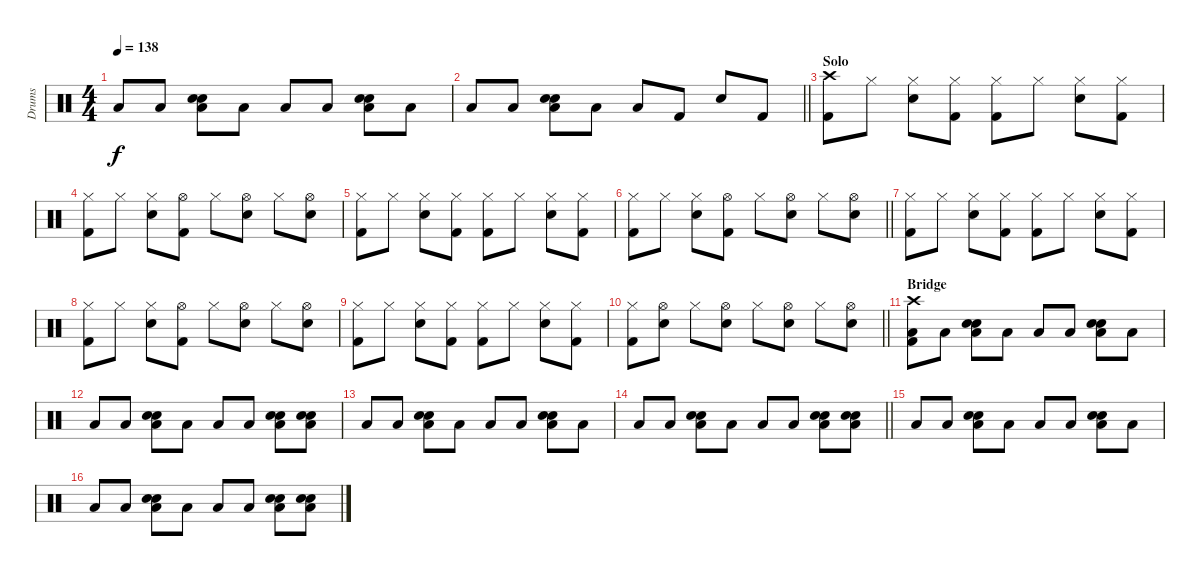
\track ("Drums" "Drums") {instrument percussion}
\staff {score}
\articulation defaults
\ts (4 4)
\tempo 138
\clef neutral
\ks c "Low Floor Tom (hit)".8{dy f} "Low Floor Tom (hit)".8
("Snare (hit) 2" "Hand Clap (hit)" "Low Floor Tom (hit)").8 "Low Floor Tom (hit)".8 "Low Floor Tom (hit)".8 "Low Floor Tom (hit)".8 ("Snare (hit) 2" "Hand Clap (hit)" "Low Floor Tom (hit)").8 "Low Floor Tom (hit)".8 |
\barLineRight lightlight "Low Floor Tom (hit)".8 "Low Floor Tom (hit)".8
("Snare (hit) 2" "Hand Clap (hit)" "Low Floor Tom (hit)").8 "Low Floor Tom (hit)".8 "Low Floor Tom (hit)".8 "Kick (hit) 2".8 "Snare (hit) 2".8 "Kick (hit) 2".8 |
\section ("" "Solo")
("Crash high (hit)" "Kick (hit) 2").8 "Hi-Hat (closed)".8 ("Hi-Hat (closed)" "Snare (hit) 2").8 ("Hi-Hat (closed)" "Kick (hit) 2").8 ("Hi-Hat (closed)" "Kick (hit) 2").8 "Hi-Hat (closed)".8 ("Hi-Hat (closed)" "Snare (hit) 2").8 ("Hi-Hat (closed)" "Kick (hit) 2").8 |
("Hi-Hat (closed)" "Kick (hit) 2").8 "Hi-Hat (closed)".8 ("Hi-Hat (closed)" "Snare (hit) 2").8 ("Hi-Hat (open)" "Kick (hit) 2").8 "Hi-Hat (closed)".8 ("Hi-Hat (open)" "Snare (hit) 2").8 "Hi-Hat (closed)".8 ("Hi-Hat (open)" "Snare (hit) 2").8 |
("Hi-Hat (closed)" "Kick (hit) 2").8 "Hi-Hat (closed)".8 ("Hi-Hat (closed)" "Snare (hit) 2").8 ("Hi-Hat (closed)" "Kick (hit) 2").8 ("Hi-Hat (closed)" "Kick (hit) 2").8 "Hi-Hat (closed)".8 ("Hi-Hat (closed)" "Snare (hit) 2").8 ("Hi-Hat (closed)" "Kick (hit) 2").8 |
\barLineRight lightlight
("Hi-Hat (closed)" "Kick (hit) 2").8 "Hi-Hat (closed)".8 ("Hi-Hat (closed)" "Snare (hit) 2").8 ("Hi-Hat (open)" "Kick (hit) 2").8 "Hi-Hat (closed)".8 ("Hi-Hat (open)" "Snare (hit) 2").8 "Hi-Hat (closed)".8 ("Hi-Hat (open)" "Snare (hit) 2").8 |
("Hi-Hat (closed)" "Kick (hit) 2").8 "Hi-Hat (closed)".8 ("Hi-Hat (closed)" "Snare (hit) 2").8 ("Hi-Hat (closed)" "Kick (hit) 2").8 ("Hi-Hat (closed)" "Kick (hit) 2").8 "Hi-Hat (closed)".8 ("Hi-Hat (closed)" "Snare (hit) 2").8 ("Hi-Hat (closed)" "Kick (hit) 2").8 |
("Hi-Hat (closed)" "Kick (hit) 2").8 "Hi-Hat (closed)".8 ("Hi-Hat (closed)" "Snare (hit) 2").8 ("Hi-Hat (open)" "Kick (hit) 2").8 "Hi-Hat (closed)".8 ("Hi-Hat (open)" "Snare (hit) 2").8 "Hi-Hat (closed)".8 ("Hi-Hat (open)" "Snare (hit) 2").8 |
("Hi-Hat (closed)" "Kick (hit) 2").8 "Hi-Hat (closed)".8 ("Hi-Hat (closed)" "Snare (hit) 2").8 ("Hi-Hat (closed)" "Kick (hit) 2").8 ("Hi-Hat (closed)" "Kick (hit) 2").8 "Hi-Hat (closed)".8 ("Hi-Hat (closed)" "Snare (hit) 2").8 ("Hi-Hat (closed)" "Kick (hit) 2").8 |
\barLineRight lightlight
("Hi-Hat (closed)" "Kick (hit) 2").8 ("Hi-Hat (open)" "Snare (hit) 2").8 "Hi-Hat (closed)".8 ("Hi-Hat (open)" "Snare (hit) 2").8 "Hi-Hat (closed)".8 ("Hi-Hat (open)" "Snare (hit) 2").8 "Hi-Hat (closed)".8 ("Hi-Hat (open)" "Snare (hit) 2").8 |
\section ("" "Bridge")
("Crash high (hit)" "Low Floor Tom (hit)" "Kick (hit) 2").8 "Low Floor Tom (hit)".8 ("Snare (hit) 2" "Hand Clap (hit)" "Low Floor Tom (hit)").8 "Low Floor Tom (hit)".8 "Low Floor Tom (hit)".8 "Low Floor Tom (hit)".8 ("Snare (hit) 2" "Hand Clap (hit)" "Low Floor Tom (hit)").8 "Low Floor Tom (hit)".8 |
"Low Floor Tom (hit)".8 "Low Floor Tom (hit)".8 ("Snare (hit) 2" "Hand Clap (hit)" "Low Floor Tom (hit)").8 "Low Floor Tom (hit)".8 "Low Floor Tom (hit)".8 "Low Floor Tom (hit)".8 ("Snare (hit) 2" "Hand Clap (hit)" "Low Floor Tom (hit)").8 ("Snare (hit) 2" "Hand Clap (hit)" "Low Floor Tom (hit)").8 |
"Low Floor Tom (hit)".8 "Low Floor Tom (hit)".8 ("Snare (hit) 2" "Hand Clap (hit)" "Low Floor Tom (hit)").8 "Low Floor Tom (hit)".8 "Low Floor Tom (hit)".8 "Low Floor Tom (hit)".8 ("Snare (hit) 2" "Hand Clap (hit)" "Low Floor Tom (hit)").8 "Low Floor Tom (hit)".8 |
\barLineRight lightlight "Low Floor Tom (hit)".8 "Low Floor Tom (hit)".8
("Snare (hit) 2" "Hand Clap (hit)" "Low Floor Tom (hit)").8 "Low Floor Tom (hit)".8 "Low Floor Tom (hit)".8 "Low Floor Tom (hit)".8 ("Snare (hit) 2" "Hand Clap (hit)" "Low Floor Tom (hit)").8 ("Snare (hit) 2" "Hand Clap (hit)" "Low Floor Tom (hit)").8 |
"Low Floor Tom (hit)".8 "Low Floor Tom (hit)".8 ("Snare (hit) 2" "Hand Clap (hit)" "Low Floor Tom (hit)").8 "Low Floor Tom (hit)".8 "Low Floor Tom (hit)".8 "Low Floor Tom (hit)".8 ("Snare (hit) 2" "Hand Clap (hit)" "Low Floor Tom (hit)").8 "Low Floor Tom (hit)".8 |
"Low Floor Tom (hit)".8 "Low Floor Tom (hit)".8 ("Snare (hit) 2" "Hand Clap (hit)" "Low Floor Tom (hit)").8 "Low Floor Tom (hit)".8 "Low Floor Tom (hit)".8 "Low Floor Tom (hit)".8 ("Snare (hit) 2" "Hand Clap (hit)" "Low Floor Tom (hit)").8 ("Snare (hit) 2" "Hand Clap (hit)" "Low Floor Tom (hit)").8
